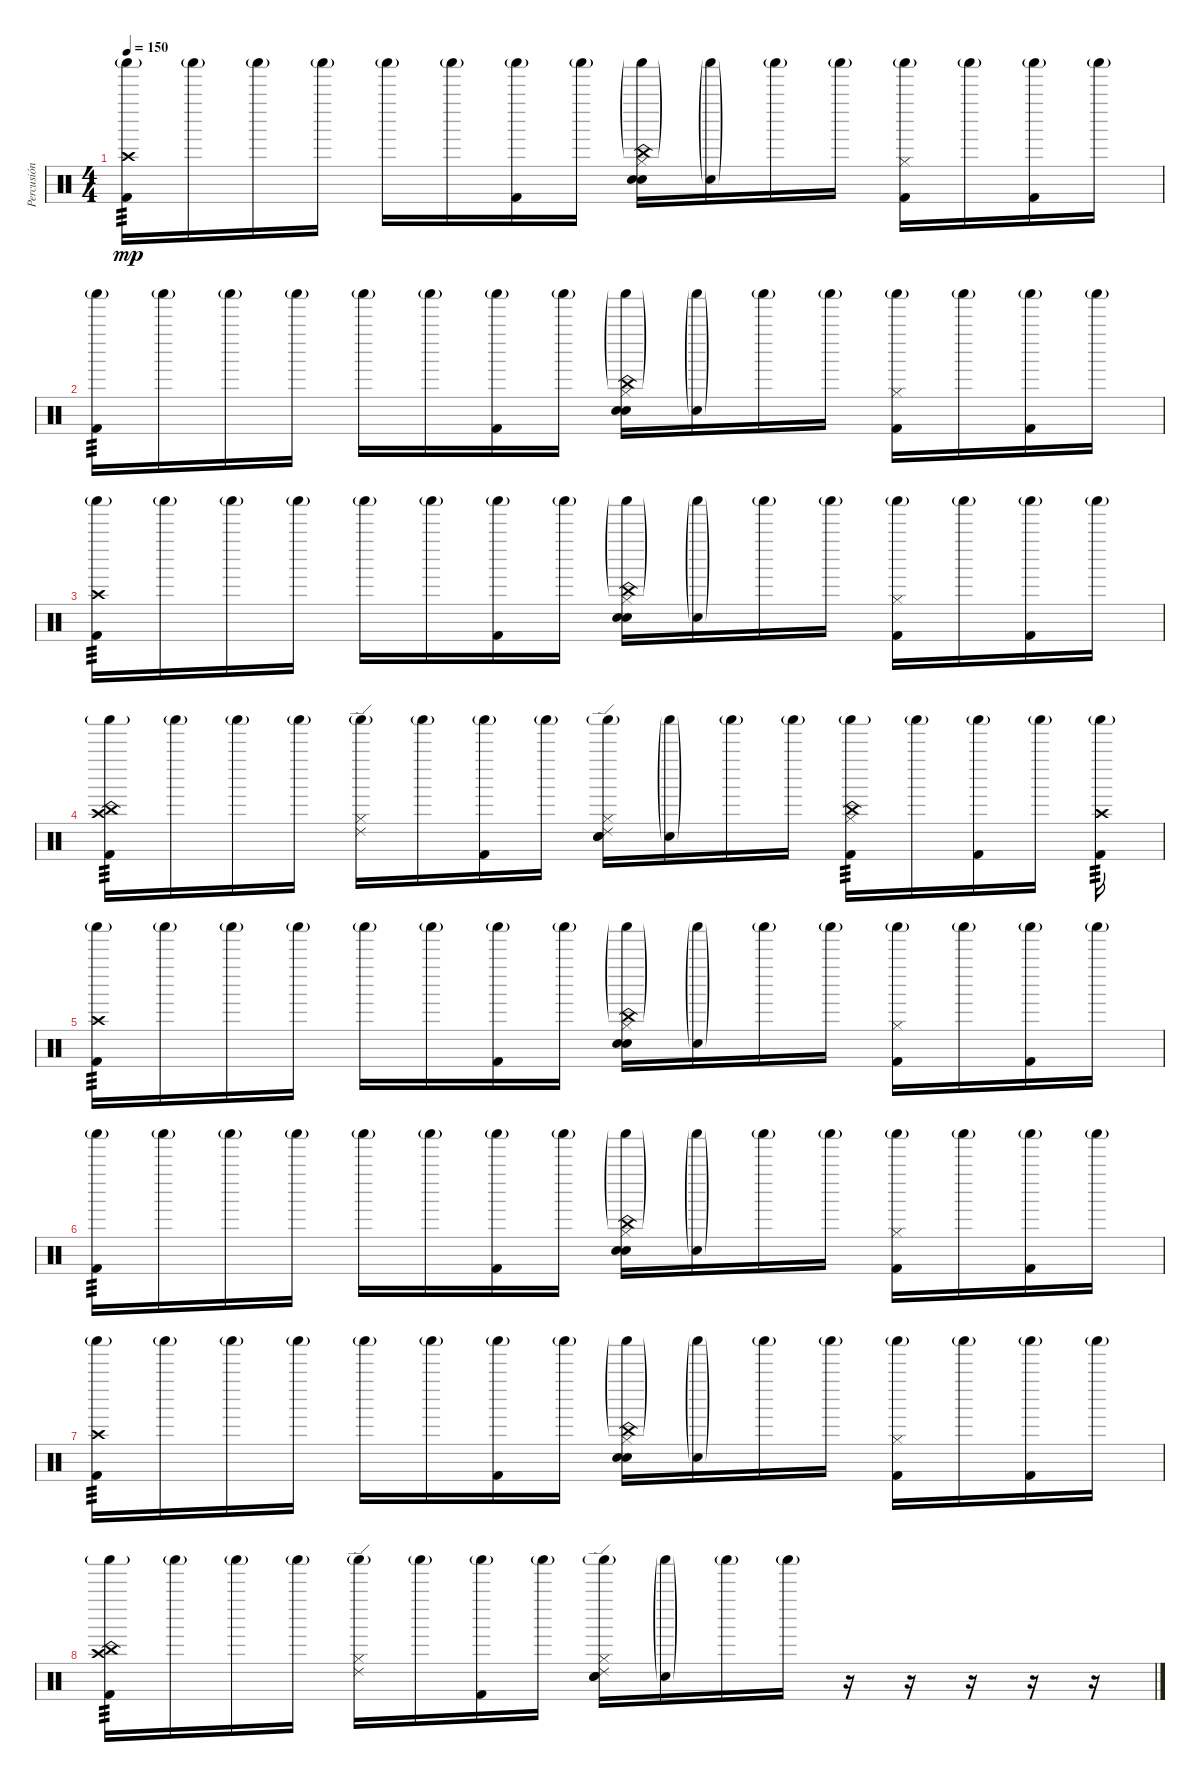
\track ("Percusión" "Percusión") {instrument percussion}
\staff {score}
\articulation defaults
\ts (4 4)
\tempo 150
\clef neutral
\ks c
("Crash high (hit)" "Shaker (hit)"{g} "Kick (hit) 2").16{tp 3 dy mp} "Shaker (hit)"{g}.16 "Shaker (hit)"{g}.16 "Shaker (hit)"{g}.16 "Shaker (hit)"{g}.16 "Shaker (hit)"{g}.16 ("Shaker (hit)"{g} "Kick (hit) 2").16 "Shaker (hit)"{g}.16 ("China (hit)"{g} "Hand Clap (hit)" "Hi-Hat (closed)" "Shaker (hit)"{g} "Electric Snare (hit)").16 ("Hand Clap (hit)"{g} "Shaker (hit)"{g}).16 "Shaker (hit)"{g}.16 "Shaker (hit)"{g}.16 ("Hi-Hat (closed)" "Shaker (hit)"{g} "Kick (hit) 2").16 "Shaker (hit)"{g}.16 ("Shaker (hit)"{g} "Kick (hit) 2").16 "Shaker (hit)"{g}.16 |
("Shaker (hit)"{g} "Kick (hit) 2").16{tp 3} "Shaker (hit)"{g}.16 "Shaker (hit)"{g}.16 "Shaker (hit)"{g}.16 "Shaker (hit)"{g}.16 "Shaker (hit)"{g}.16 ("Shaker (hit)"{g} "Kick (hit) 2").16 "Shaker (hit)"{g}.16 ("China (hit)"{g} "Hand Clap (hit)" "Hi-Hat (closed)" "Shaker (hit)"{g} "Electric Snare (hit)").16 ("Hand Clap (hit)"{g} "Shaker (hit)"{g}).16 "Shaker (hit)"{g}.16 "Shaker (hit)"{g}.16 ("Hi-Hat (closed)" "Shaker (hit)"{g} "Kick (hit) 2").16 "Shaker (hit)"{g}.16 ("Shaker (hit)"{g} "Kick (hit) 2").16 "Shaker (hit)"{g}.16 |
("Crash high (hit)" "Shaker (hit)"{g} "Kick (hit) 2").16{tp 3} "Shaker (hit)"{g}.16 "Shaker (hit)"{g}.16 "Shaker (hit)"{g}.16 "Shaker (hit)"{g}.16 "Shaker (hit)"{g}.16 ("Shaker (hit)"{g} "Kick (hit) 2").16 "Shaker (hit)"{g}.16 ("China (hit)"{g} "Hand Clap (hit)" "Hi-Hat (closed)" "Shaker (hit)"{g} "Electric Snare (hit)").16 ("Hand Clap (hit)"{g} "Shaker (hit)"{g}).16 "Shaker (hit)"{g}.16 "Shaker (hit)"{g}.16 ("Hi-Hat (closed)" "Shaker (hit)"{g} "Kick (hit) 2").16 "Shaker (hit)"{g}.16 ("Shaker (hit)"{g} "Kick (hit) 2").16 "Shaker (hit)"{g}.16 |
("China (hit)" "Crash high (hit)" "Shaker (hit)"{g} "Kick (hit) 2").16{tp 3} "Shaker (hit)"{g}.16 "Shaker (hit)"{g}.16 "Shaker (hit)"{g}.16 ("Ride (edge) 2" "Hi-Hat (closed)" "Shaker (hit)"{g}).16 "Shaker (hit)"{g}.16 ("Shaker (hit)"{g} "Kick (hit) 2").16 "Shaker (hit)"{g}.16 ("Ride (edge) 2" "Hand Clap (hit)" "Hi-Hat (closed)" "Shaker (hit)"{g} "Electric Snare (hit)").16 ("Hand Clap (hit)"{g} "Shaker (hit)"{g}).16 "Shaker (hit)"{g}.16 "Shaker (hit)"{g}.16 ("China (hit)" "Hi-Hat (closed)" "Shaker (hit)"{g} "Kick (hit) 2").16{tp 3} "Shaker (hit)"{g}.16 ("Shaker (hit)"{g} "Kick (hit) 2").16 "Shaker (hit)"{g}.16 ("Crash high (hit)" "Shaker (hit)"{g} "Kick (hit) 2").16{tp 3} |
("Crash high (hit)" "Shaker (hit)"{g} "Kick (hit) 2").16{tp 3} "Shaker (hit)"{g}.16 "Shaker (hit)"{g}.16 "Shaker (hit)"{g}.16 "Shaker (hit)"{g}.16 "Shaker (hit)"{g}.16 ("Shaker (hit)"{g} "Kick (hit) 2").16 "Shaker (hit)"{g}.16 ("China (hit)"{g} "Hand Clap (hit)" "Hi-Hat (closed)" "Shaker (hit)"{g} "Electric Snare (hit)").16 ("Hand Clap (hit)"{g} "Shaker (hit)"{g}).16 "Shaker (hit)"{g}.16 "Shaker (hit)"{g}.16 ("Hi-Hat (closed)" "Shaker (hit)"{g} "Kick (hit) 2").16 "Shaker (hit)"{g}.16 ("Shaker (hit)"{g} "Kick (hit) 2").16 "Shaker (hit)"{g}.16 |
("Shaker (hit)"{g} "Kick (hit) 2").16{tp 3} "Shaker (hit)"{g}.16 "Shaker (hit)"{g}.16 "Shaker (hit)"{g}.16 "Shaker (hit)"{g}.16 "Shaker (hit)"{g}.16 ("Shaker (hit)"{g} "Kick (hit) 2").16 "Shaker (hit)"{g}.16 ("China (hit)"{g} "Hand Clap (hit)" "Hi-Hat (closed)" "Shaker (hit)"{g} "Electric Snare (hit)").16 ("Hand Clap (hit)"{g} "Shaker (hit)"{g}).16 "Shaker (hit)"{g}.16 "Shaker (hit)"{g}.16 ("Hi-Hat (closed)" "Shaker (hit)"{g} "Kick (hit) 2").16 "Shaker (hit)"{g}.16 ("Shaker (hit)"{g} "Kick (hit) 2").16 "Shaker (hit)"{g}.16 |
("Crash high (hit)" "Shaker (hit)"{g} "Kick (hit) 2").16{tp 3} "Shaker (hit)"{g}.16 "Shaker (hit)"{g}.16 "Shaker (hit)"{g}.16 "Shaker (hit)"{g}.16 "Shaker (hit)"{g}.16 ("Shaker (hit)"{g} "Kick (hit) 2").16 "Shaker (hit)"{g}.16 ("China (hit)"{g} "Hand Clap (hit)" "Hi-Hat (closed)" "Shaker (hit)"{g} "Electric Snare (hit)").16 ("Hand Clap (hit)"{g} "Shaker (hit)"{g}).16 "Shaker (hit)"{g}.16 "Shaker (hit)"{g}.16 ("Hi-Hat (closed)" "Shaker (hit)"{g} "Kick (hit) 2").16 "Shaker (hit)"{g}.16 ("Shaker (hit)"{g} "Kick (hit) 2").16 "Shaker (hit)"{g}.16 |
("China (hit)" "Crash high (hit)" "Shaker (hit)"{g} "Kick (hit) 2").16{tp 3} "Shaker (hit)"{g}.16 "Shaker (hit)"{g}.16 "Shaker (hit)"{g}.16 ("Ride (edge) 2" "Hi-Hat (closed)" "Shaker (hit)"{g}).16 "Shaker (hit)"{g}.16 ("Shaker (hit)"{g} "Kick (hit) 2").16 "Shaker (hit)"{g}.16 ("Ride (edge) 2" "Hand Clap (hit)" "Hi-Hat (closed)" "Shaker (hit)"{g} "Electric Snare (hit)").16 ("Hand Clap (hit)"{g} "Shaker (hit)"{g}).16 "Shaker (hit)"{g}.16 "Shaker (hit)"{g}.16 r.16 r.16 r.16 r.16 r.16
